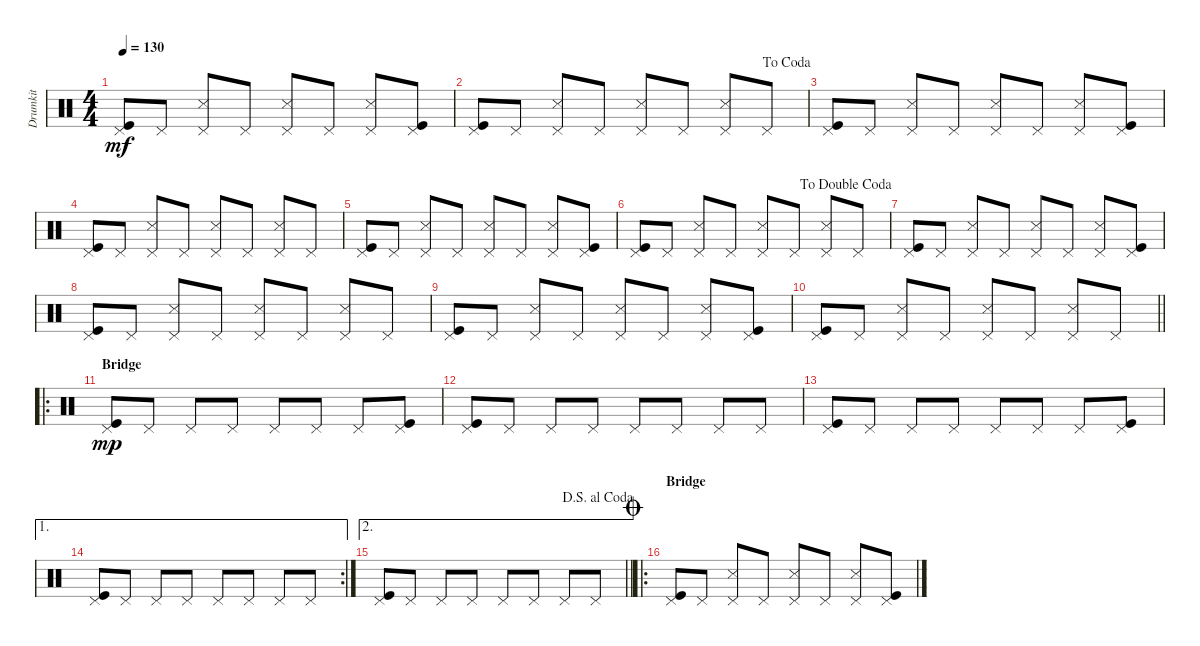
\track ("Drumkit" "Drumkit") {instrument percussion}
\staff {score}
\articulation defaults
\ts (4 4)
\tempo 130
\clef neutral
\ks c
("Kick (hit)" "Pedal Hi-Hat (hit)").8{dy mf} "Pedal Hi-Hat (hit)".8 ("Pedal Hi-Hat (hit)" "Snare (side stick) 3").8 "Pedal Hi-Hat (hit)".8 ("Pedal Hi-Hat (hit)" "Snare (side stick) 3").8 "Pedal Hi-Hat (hit)".8 ("Pedal Hi-Hat (hit)" "Snare (side stick) 3").8 ("Kick (hit)" "Pedal Hi-Hat (hit)").8 |
\jump dacoda
("Kick (hit)" "Pedal Hi-Hat (hit)").8 "Pedal Hi-Hat (hit)".8 ("Pedal Hi-Hat (hit)" "Snare (side stick) 3").8 "Pedal Hi-Hat (hit)".8 ("Pedal Hi-Hat (hit)" "Snare (side stick) 3").8 "Pedal Hi-Hat (hit)".8 ("Pedal Hi-Hat (hit)" "Snare (side stick) 3").8 "Pedal Hi-Hat (hit)".8 |
("Kick (hit)" "Pedal Hi-Hat (hit)").8 "Pedal Hi-Hat (hit)".8 ("Pedal Hi-Hat (hit)" "Snare (side stick) 3").8 "Pedal Hi-Hat (hit)".8 ("Pedal Hi-Hat (hit)" "Snare (side stick) 3").8 "Pedal Hi-Hat (hit)".8 ("Pedal Hi-Hat (hit)" "Snare (side stick) 3").8 ("Kick (hit)" "Pedal Hi-Hat (hit)").8 |
("Kick (hit)" "Pedal Hi-Hat (hit)").8 "Pedal Hi-Hat (hit)".8 ("Pedal Hi-Hat (hit)" "Snare (side stick) 3").8 "Pedal Hi-Hat (hit)".8 ("Pedal Hi-Hat (hit)" "Snare (side stick) 3").8 "Pedal Hi-Hat (hit)".8 ("Pedal Hi-Hat (hit)" "Snare (side stick) 3").8 "Pedal Hi-Hat (hit)".8 |
("Kick (hit)" "Pedal Hi-Hat (hit)").8 "Pedal Hi-Hat (hit)".8 ("Pedal Hi-Hat (hit)" "Snare (side stick) 3").8 "Pedal Hi-Hat (hit)".8 ("Pedal Hi-Hat (hit)" "Snare (side stick) 3").8 "Pedal Hi-Hat (hit)".8 ("Pedal Hi-Hat (hit)" "Snare (side stick) 3").8 ("Kick (hit)" "Pedal Hi-Hat (hit)").8 |
\jump dadoublecoda
("Kick (hit)" "Pedal Hi-Hat (hit)").8 "Pedal Hi-Hat (hit)".8 ("Pedal Hi-Hat (hit)" "Snare (side stick) 3").8 "Pedal Hi-Hat (hit)".8 ("Pedal Hi-Hat (hit)" "Snare (side stick) 3").8 "Pedal Hi-Hat (hit)".8 ("Pedal Hi-Hat (hit)" "Snare (side stick) 3").8 "Pedal Hi-Hat (hit)".8 |
("Kick (hit)" "Pedal Hi-Hat (hit)").8 "Pedal Hi-Hat (hit)".8 ("Pedal Hi-Hat (hit)" "Snare (side stick) 3").8 "Pedal Hi-Hat (hit)".8 ("Pedal Hi-Hat (hit)" "Snare (side stick) 3").8 "Pedal Hi-Hat (hit)".8 ("Pedal Hi-Hat (hit)" "Snare (side stick) 3").8 ("Kick (hit)" "Pedal Hi-Hat (hit)").8 |
("Kick (hit)" "Pedal Hi-Hat (hit)").8 "Pedal Hi-Hat (hit)".8 ("Pedal Hi-Hat (hit)" "Snare (side stick) 3").8 "Pedal Hi-Hat (hit)".8 ("Pedal Hi-Hat (hit)" "Snare (side stick) 3").8 "Pedal Hi-Hat (hit)".8 ("Pedal Hi-Hat (hit)" "Snare (side stick) 3").8 "Pedal Hi-Hat (hit)".8 |
("Kick (hit)" "Pedal Hi-Hat (hit)").8 "Pedal Hi-Hat (hit)".8 ("Pedal Hi-Hat (hit)" "Snare (side stick) 3").8 "Pedal Hi-Hat (hit)".8 ("Pedal Hi-Hat (hit)" "Snare (side stick) 3").8 "Pedal Hi-Hat (hit)".8 ("Pedal Hi-Hat (hit)" "Snare (side stick) 3").8 ("Kick (hit)" "Pedal Hi-Hat (hit)").8 |
\barLineRight lightlight
("Kick (hit)" "Pedal Hi-Hat (hit)").8 "Pedal Hi-Hat (hit)".8 ("Pedal Hi-Hat (hit)" "Snare (side stick) 3").8 "Pedal Hi-Hat (hit)".8 ("Pedal Hi-Hat (hit)" "Snare (side stick) 3").8 "Pedal Hi-Hat (hit)".8 ("Pedal Hi-Hat (hit)" "Snare (side stick) 3").8 "Pedal Hi-Hat (hit)".8 |
\ro
\section ("" "Bridge")
("Kick (hit)" "Pedal Hi-Hat (hit)").8{dy mp} "Pedal Hi-Hat (hit)".8 "Pedal Hi-Hat (hit)".8 "Pedal Hi-Hat (hit)".8 "Pedal Hi-Hat (hit)".8 "Pedal Hi-Hat (hit)".8 "Pedal Hi-Hat (hit)".8 ("Kick (hit)" "Pedal Hi-Hat (hit)").8 |
("Kick (hit)" "Pedal Hi-Hat (hit)").8 "Pedal Hi-Hat (hit)".8 "Pedal Hi-Hat (hit)".8 "Pedal Hi-Hat (hit)".8 "Pedal Hi-Hat (hit)".8 "Pedal Hi-Hat (hit)".8 "Pedal Hi-Hat (hit)".8 "Pedal Hi-Hat (hit)".8 |
("Kick (hit)" "Pedal Hi-Hat (hit)").8 "Pedal Hi-Hat (hit)".8 "Pedal Hi-Hat (hit)".8 "Pedal Hi-Hat (hit)".8 "Pedal Hi-Hat (hit)".8 "Pedal Hi-Hat (hit)".8 "Pedal Hi-Hat (hit)".8 ("Kick (hit)" "Pedal Hi-Hat (hit)").8 |
\ae 1
\rc 2
("Kick (hit)" "Pedal Hi-Hat (hit)").8 "Pedal Hi-Hat (hit)".8 "Pedal Hi-Hat (hit)".8 "Pedal Hi-Hat (hit)".8 "Pedal Hi-Hat (hit)".8 "Pedal Hi-Hat (hit)".8 "Pedal Hi-Hat (hit)".8 "Pedal Hi-Hat (hit)".8 |
\ae 2
\jump dalsegnoalcoda
\barLineRight lightlight
("Kick (hit)" "Pedal Hi-Hat (hit)").8 "Pedal Hi-Hat (hit)".8 "Pedal Hi-Hat (hit)".8 "Pedal Hi-Hat (hit)".8 "Pedal Hi-Hat (hit)".8 "Pedal Hi-Hat (hit)".8 "Pedal Hi-Hat (hit)".8 "Pedal Hi-Hat (hit)".8 |
\ro
\section ("" "Bridge")
\jump coda
("Kick (hit)" "Pedal Hi-Hat (hit)").8 "Pedal Hi-Hat (hit)".8 ("Pedal Hi-Hat (hit)" "Snare (side stick) 3").8 "Pedal Hi-Hat (hit)".8 ("Pedal Hi-Hat (hit)" "Snare (side stick) 3").8 "Pedal Hi-Hat (hit)".8 ("Pedal Hi-Hat (hit)" "Snare (side stick) 3").8 ("Kick (hit)" "Pedal Hi-Hat (hit)").8
